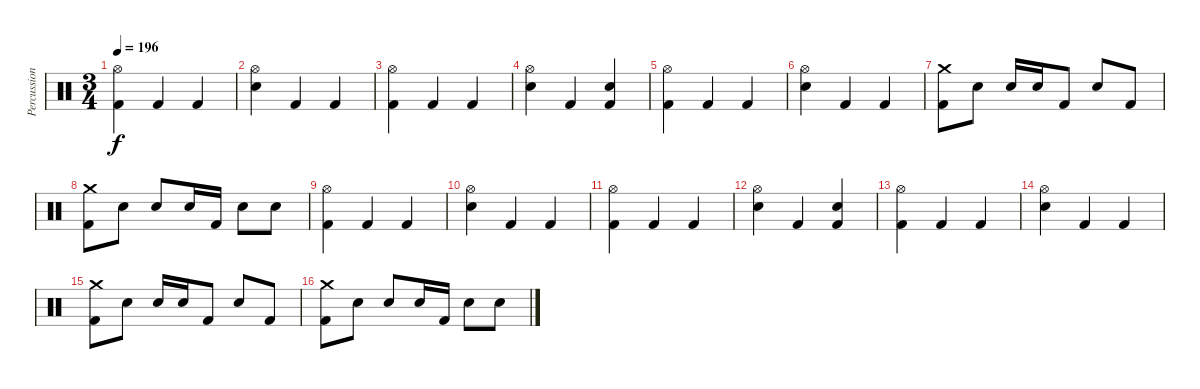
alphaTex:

\track ("Percussion" "Percussion") {instrument percussion}
\staff {score}
\articulation defaults
\ts (3 4)
\tempo 196
\clef neutral
\ks c
("Hi-Hat (open)" "Kick (hit) 2").4{dy f} "Kick (hit) 2".4 "Kick (hit) 2".4 |
("Hi-Hat (open)" "Electric Snare (hit)").4 "Kick (hit) 2".4 "Kick (hit) 2".4 |
("Hi-Hat (open)" "Kick (hit) 2").4 "Kick (hit) 2".4 "Kick (hit) 2".4 |
("Hi-Hat (open)" "Electric Snare (hit)").4 "Kick (hit) 2".4 ("Electric Snare (hit)" "Kick (hit) 2").4 |
("Hi-Hat (open)" "Kick (hit) 2").4 "Kick (hit) 2".4 "Kick (hit) 2".4 |
("Hi-Hat (open)" "Electric Snare (hit)").4 "Kick (hit) 2".4 "Kick (hit) 2".4 |
("Crash medium (hit)" "Kick (hit) 2").8 "Electric Snare (hit)".8 "Electric Snare (hit)".16 "Electric Snare (hit)".16 "Kick (hit) 2".8 "Electric Snare (hit)".8 "Kick (hit) 2".8 |
("Crash medium (hit)" "Kick (hit) 2").8 "Electric Snare (hit)".8 "Electric Snare (hit)".8 "Electric Snare (hit)".16 "Kick (hit) 2".16 "Electric Snare (hit)".8 "Electric Snare (hit)".8 |
("Hi-Hat (open)" "Kick (hit) 2").4 "Kick (hit) 2".4 "Kick (hit) 2".4 |
("Hi-Hat (open)" "Electric Snare (hit)").4 "Kick (hit) 2".4 "Kick (hit) 2".4 |
("Hi-Hat (open)" "Kick (hit) 2").4 "Kick (hit) 2".4 "Kick (hit) 2".4 |
("Hi-Hat (open)" "Electric Snare (hit)").4 "Kick (hit) 2".4 ("Electric Snare (hit)" "Kick (hit) 2").4 |
("Hi-Hat (open)" "Kick (hit) 2").4 "Kick (hit) 2".4 "Kick (hit) 2".4 |
("Hi-Hat (open)" "Electric Snare (hit)").4 "Kick (hit) 2".4 "Kick (hit) 2".4 |
("Crash medium (hit)" "Kick (hit) 2").8 "Electric Snare (hit)".8 "Electric Snare (hit)".16 "Electric Snare (hit)".16 "Kick (hit) 2".8 "Electric Snare (hit)".8 "Kick (hit) 2".8 |
("Crash medium (hit)" "Kick (hit) 2").8 "Electric Snare (hit)".8 "Electric Snare (hit)".8 "Electric Snare (hit)".16 "Kick (hit) 2".16 "Electric Snare (hit)".8 "Electric Snare (hit)".8
